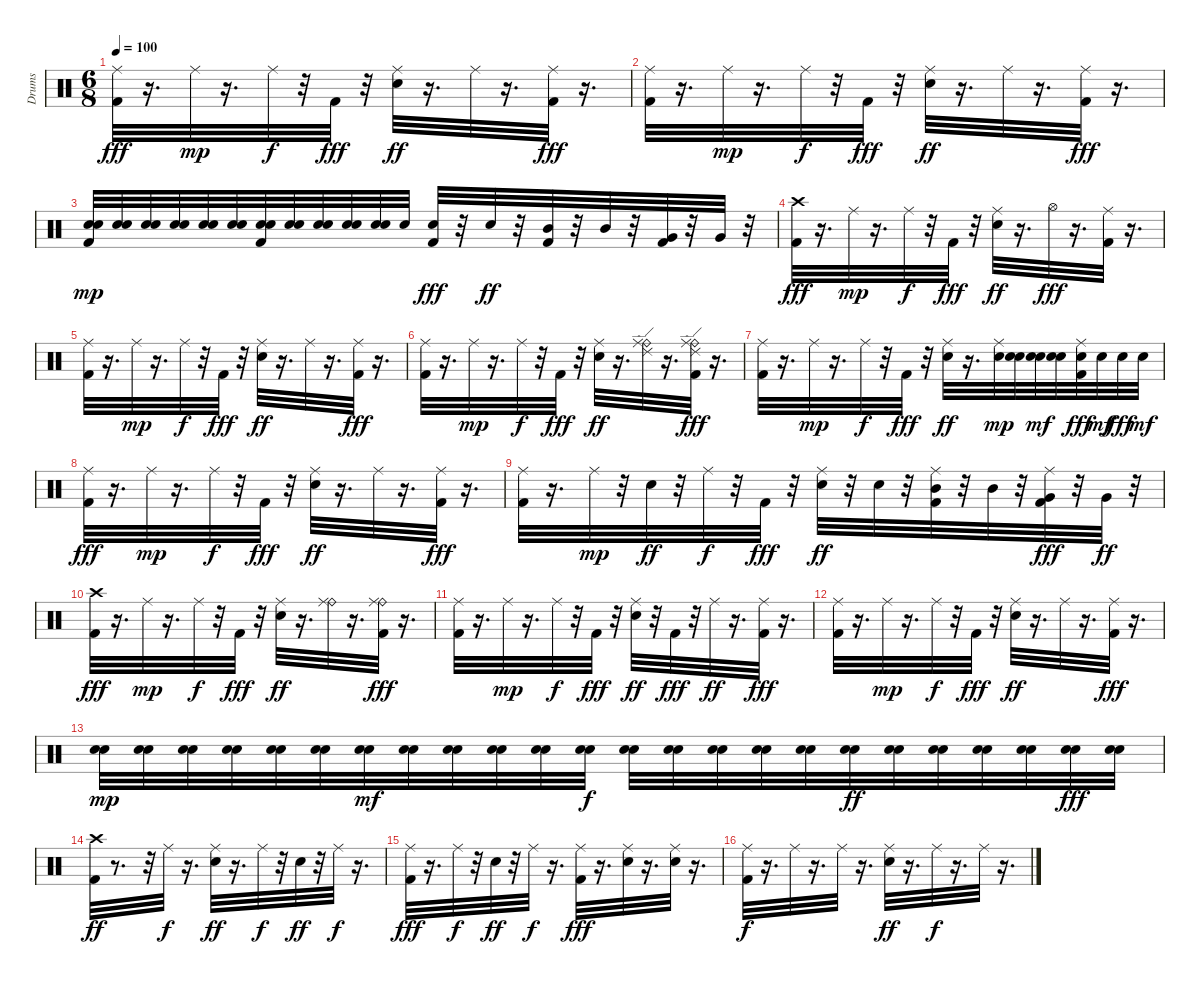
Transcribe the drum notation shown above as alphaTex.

\track ("Drums               " "Drums     ") {instrument percussion}
\staff {score}
\articulation defaults
\ts (6 8)
\tempo 100
\clef neutral
\ks c
("Ride (middle)" "Kick (hit) 2").32{dy fff} r.16{d} "Ride (middle)".32{dy mp} r.16{d} "Ride (middle)".32{dy f} r.32 "Kick (hit) 2".32{dy fff} r.32 ("Ride (middle)" "Electric Snare (hit)").32{dy ff} r.16{d} "Ride (middle)".32 r.16{d} ("Ride (middle)" "Kick (hit) 2").32{dy fff} r.16{d} |
("Ride (middle)" "Kick (hit) 2").32 r.16{d} "Ride (middle)".32{dy mp} r.16{d} "Ride (middle)".32{dy f} r.32 "Kick (hit) 2".32{dy fff} r.32 ("Ride (middle)" "Electric Snare (hit)").32{dy ff} r.16{d} "Ride (middle)".32 r.16{d} ("Ride (middle)" "Kick (hit) 2").32{dy fff} r.16{d} |
("Electric Snare (hit)" "Kick (hit) 2" "Electric Snare (hit)").32{dy mp} ("Electric Snare (hit)" "Electric Snare (hit)").32 ("Electric Snare (hit)" "Electric Snare (hit)").32 ("Electric Snare (hit)" "Electric Snare (hit)").32 ("Electric Snare (hit)" "Electric Snare (hit)").32 ("Electric Snare (hit)" "Electric Snare (hit)").32 ("Kick (hit) 2" "Electric Snare (hit)" "Electric Snare (hit)").32 ("Electric Snare (hit)" "Electric Snare (hit)").32 ("Electric Snare (hit)" "Electric Snare (hit)").32 ("Electric Snare (hit)" "Electric Snare (hit)").32 ("Electric Snare (hit)" "Electric Snare (hit)").32 "Electric Snare (hit)".32 ("Kick (hit) 2" "Electric Snare (hit)").32{dy fff} r.32 "Electric Snare (hit)".32{dy ff} r.32 ("Kick (hit) 2" "Mid Tom (hit)").32 r.32 "Mid Tom (hit)".32 r.32 ("Kick (hit) 2" "Very Low Tom (hit)").32 r.32 "Very Low Tom (hit)".32 r.32 |
("Crash high (hit)" "Kick (hit) 2").32{dy fff} r.16{d} "Ride (middle)".32{dy mp} r.16{d} "Ride (middle)".32{dy f} r.32 "Kick (hit) 2".32{dy fff} r.32 ("Ride (middle)" "Electric Snare (hit)").32{dy ff} r.16{d} "Hi-Hat (open)".32{dy fff} r.16{d} ("Ride (middle)" "Kick (hit) 2").32 r.16{d} |
("Ride (middle)" "Kick (hit) 2").32 r.16{d} "Ride (middle)".32{dy mp} r.16{d} "Ride (middle)".32{dy f} r.32 "Kick (hit) 2".32{dy fff} r.32 ("Ride (middle)" "Electric Snare (hit)").32{dy ff} r.16{d} "Ride (middle)".32 r.16{d} ("Ride (middle)" "Kick (hit) 2").32{dy fff} r.16{d} |
("Ride (middle)" "Kick (hit) 2").32 r.16{d} "Ride (middle)".32{dy mp} r.16{d} "Ride (middle)".32{dy f} r.32 "Kick (hit) 2".32{dy fff} r.32 ("Ride (middle)" "Electric Snare (hit)").32{dy ff} r.16{d} ("Ride (edge) 2" "Ride (bell)" "Ride (middle)").32 r.16{d} ("Ride (bell)" "Ride (edge) 2" "Ride (middle)" "Kick (hit) 2").32{dy fff} r.16{d} |
("Ride (middle)" "Kick (hit) 2").32 r.16{d} "Ride (middle)".32{dy mp} r.16{d} "Ride (middle)".32{dy f} r.32 "Kick (hit) 2".32{dy fff} r.32 ("Ride (middle)" "Electric Snare (hit)").32{dy ff} r.16{d} ("Ride (middle)" "Electric Snare (hit)").32{dy mp} ("Electric Snare (hit)" "Electric Snare (hit)").32 ("Electric Snare (hit)" "Electric Snare (hit)").32{dy mf} ("Electric Snare (hit)" "Electric Snare (hit)").32 ("Electric Snare (hit)" "Ride (middle)" "Kick (hit) 2").32{dy fff} "Electric Snare (hit)".32{dy mf} "Electric Snare (hit)".32{dy fff} "Electric Snare (hit)".32{dy mf} |
("Ride (middle)" "Kick (hit) 2").32{dy fff} r.16{d} "Ride (middle)".32{dy mp} r.16{d} "Ride (middle)".32{dy f} r.32 "Kick (hit) 2".32{dy fff} r.32 ("Ride (middle)" "Electric Snare (hit)").32{dy ff} r.16{d} "Ride (middle)".32 r.16{d} ("Ride (middle)" "Kick (hit) 2").32{dy fff} r.16{d} |
("Ride (middle)" "Kick (hit) 2").32 r.16{d} "Ride (middle)".32{dy mp} r.32 "Electric Snare (hit)".32{dy ff} r.32 "Ride (middle)".32{dy f} r.32 "Kick (hit) 2".32{dy fff} r.32 ("Ride (middle)" "Electric Snare (hit)").32{dy ff} r.32 "Electric Snare (hit)".32 r.32 ("Kick (hit) 2" "Mid Tom (hit)" "Ride (middle)").32 r.32 "Mid Tom (hit)".32 r.32 ("Very Low Tom (hit)" "Ride (middle)" "Kick (hit) 2").32{dy fff} r.32 "Very Low Tom (hit)".32{dy ff} r.32 |
("Crash high (hit)" "Kick (hit) 2").32{dy fff} r.16{d} "Ride (middle)".32{dy mp} r.16{d} "Ride (middle)".32{dy f} r.32 "Kick (hit) 2".32{dy fff} r.32 ("Ride (middle)" "Electric Snare (hit)").32{dy ff} r.16{d} ("Ride (bell)" "Ride (middle)").32 r.16{d} ("Ride (bell)" "Ride (middle)" "Kick (hit) 2").32{dy fff} r.16{d} |
("Ride (middle)" "Kick (hit) 2").32 r.16{d} "Ride (middle)".32{dy mp} r.16{d} "Ride (middle)".32{dy f} r.32 "Kick (hit) 2".32{dy fff} r.32 ("Ride (middle)" "Electric Snare (hit)").32{dy ff} r.32 "Kick (hit) 2".32{dy fff} r.32 "Ride (middle)".32{dy ff} r.16{d} ("Ride (middle)" "Kick (hit) 2").32{dy fff} r.16{d} |
("Ride (middle)" "Kick (hit) 2").32 r.16{d} "Ride (middle)".32{dy mp} r.16{d} "Ride (middle)".32{dy f} r.32 "Kick (hit) 2".32{dy fff} r.32 ("Ride (middle)" "Electric Snare (hit)").32{dy ff} r.16{d} "Ride (middle)".32 r.16{d} ("Ride (middle)" "Kick (hit) 2").32{dy fff} r.16{d} |
("Electric Snare (hit)" "Electric Snare (hit)").32{dy mp} ("Electric Snare (hit)" "Electric Snare (hit)").32 ("Electric Snare (hit)" "Electric Snare (hit)").32 ("Electric Snare (hit)" "Electric Snare (hit)").32 ("Electric Snare (hit)" "Electric Snare (hit)").32 ("Electric Snare (hit)" "Electric Snare (hit)").32 ("Electric Snare (hit)" "Electric Snare (hit)").32{dy mf} ("Electric Snare (hit)" "Electric Snare (hit)").32 ("Electric Snare (hit)" "Electric Snare (hit)").32 ("Electric Snare (hit)" "Electric Snare (hit)").32 ("Electric Snare (hit)" "Electric Snare (hit)").32 ("Electric Snare (hit)" "Electric Snare (hit)").32{dy f} ("Electric Snare (hit)" "Electric Snare (hit)").32 ("Electric Snare (hit)" "Electric Snare (hit)").32 ("Electric Snare (hit)" "Electric Snare (hit)").32 ("Electric Snare (hit)" "Electric Snare (hit)").32 ("Electric Snare (hit)" "Electric Snare (hit)").32 ("Electric Snare (hit)" "Electric Snare (hit)").32{dy ff} ("Electric Snare (hit)" "Electric Snare (hit)").32 ("Electric Snare (hit)" "Electric Snare (hit)").32 ("Electric Snare (hit)" "Electric Snare (hit)").32 ("Electric Snare (hit)" "Electric Snare (hit)").32 ("Electric Snare (hit)" "Electric Snare (hit)").32{dy fff} ("Electric Snare (hit)" "Electric Snare (hit)").32 |
("Kick (hit) 2" "Crash high (hit)").32{dy ff} r.8{d} r.32 "Ride (middle)".32{dy f} r.16{d} ("Ride (middle)" "Electric Snare (hit)").32{dy ff} r.16{d} "Ride (middle)".32{dy f} r.32 "Electric Snare (hit)".32{dy ff} r.32 "Ride (middle)".32{dy f} r.16{d} |
("Ride (middle)" "Kick (hit) 2").32{dy fff} r.16{d} "Ride (middle)".32{dy f} r.32 "Electric Snare (hit)".32{dy ff} r.32 "Ride (middle)".32{dy f} r.16{d} ("Ride (middle)" "Kick (hit) 2").32{dy fff} r.16{d} ("Ride (middle)" "Electric Snare (hit)").32 r.16{d} ("Ride (middle)" "Electric Snare (hit)").32 r.16{d} |
("Ride (middle)" "Kick (hit) 2").32{dy f} r.16{d} "Ride (middle)".32 r.16{d} "Ride (middle)".32 r.16{d} ("Electric Snare (hit)" "Ride (middle)").32{dy ff} r.16{d} "Ride (middle)".32{dy f} r.16{d} "Ride (middle)".32 r.16{d}
